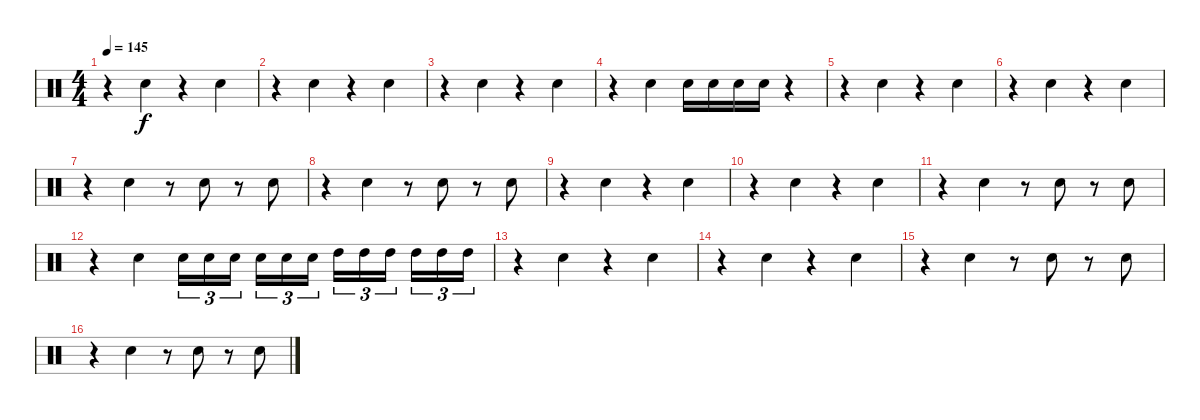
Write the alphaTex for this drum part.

\track "" {instrument percussion}
\staff {score}
\articulation defaults
\ts (4 4)
\tempo 145
\clef neutral
\ks c
r.4{dy f} "Electric Snare (hit)".4 r.4 "Electric Snare (hit)".4 |
r.4 "Electric Snare (hit)".4 r.4 "Electric Snare (hit)".4 |
r.4 "Electric Snare (hit)".4 r.4 "Electric Snare (hit)".4 |
r.4 "Electric Snare (hit)".4 "Electric Snare (hit)".16 "Electric Snare (hit)".16 "Electric Snare (hit)".16 "Electric Snare (hit)".16 r.4 |
r.4 "Electric Snare (hit)".4 r.4 "Electric Snare (hit)".4 |
r.4 "Electric Snare (hit)".4 r.4 "Electric Snare (hit)".4 |
r.4 "Electric Snare (hit)".4 r.8 "Electric Snare (hit)".8 r.8 "Electric Snare (hit)".8 |
r.4 "Electric Snare (hit)".4 r.8 "Electric Snare (hit)".8 r.8 "Electric Snare (hit)".8 |
r.4 "Electric Snare (hit)".4 r.4 "Electric Snare (hit)".4 |
r.4 "Electric Snare (hit)".4 r.4 "Electric Snare (hit)".4 |
r.4 "Electric Snare (hit)".4 r.8 "Electric Snare (hit)".8 r.8 "Electric Snare (hit)".8 |
r.4 "Electric Snare (hit)".4 "Electric Snare (hit)".16{tu (3 2)} "Electric Snare (hit)".16{tu (3 2)} "Electric Snare (hit)".16{tu (3 2)} "Electric Snare (hit)".16{tu (3 2)} "Electric Snare (hit)".16{tu (3 2)} "Electric Snare (hit)".16{tu (3 2)} "High Tom (hit)".16{tu (3 2)} "High Tom (hit)".16{tu (3 2)} "High Tom (hit)".16{tu (3 2)} "High Tom (hit)".16{tu (3 2)} "High Tom (hit)".16{tu (3 2)} "High Tom (hit)".16{tu (3 2)} |
r.4 "Electric Snare (hit)".4 r.4 "Electric Snare (hit)".4 |
r.4 "Electric Snare (hit)".4 r.4 "Electric Snare (hit)".4 |
r.4 "Electric Snare (hit)".4 r.8 "Electric Snare (hit)".8 r.8 "Electric Snare (hit)".8 |
r.4 "Electric Snare (hit)".4 r.8 "Electric Snare (hit)".8 r.8 "Electric Snare (hit)".8
